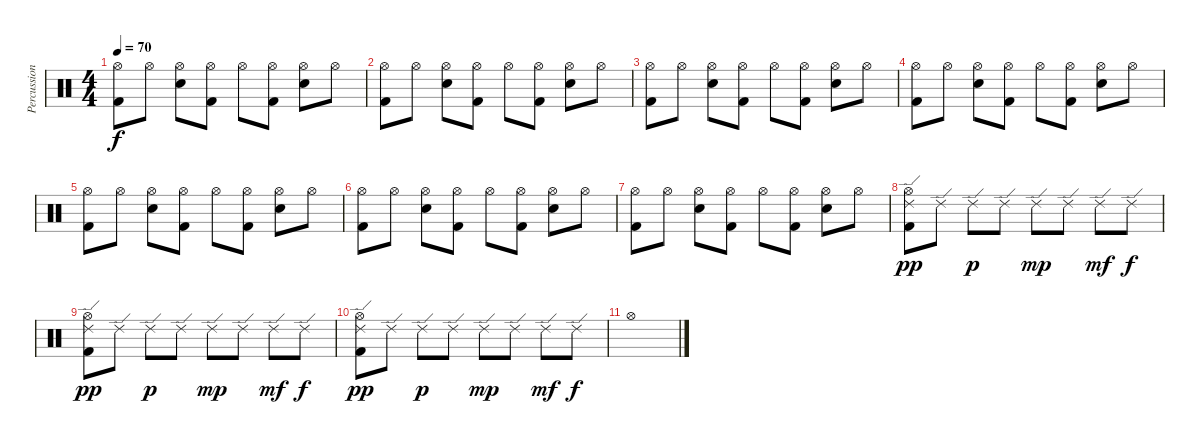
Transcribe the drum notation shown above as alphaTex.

\track ("Percussion" "Percussion") {instrument percussion}
\staff {score}
\articulation defaults
\ts (4 4)
\tempo 70
\clef neutral
\ks c
("Hi-Hat (open)" "Kick (hit) 2").8{dy f} "Hi-Hat (open)".8 ("Hi-Hat (open)" "Electric Snare (hit)").8 ("Hi-Hat (open)" "Kick (hit) 2").8 "Hi-Hat (open)".8 ("Hi-Hat (open)" "Kick (hit) 2").8 ("Hi-Hat (open)" "Electric Snare (hit)").8 "Hi-Hat (open)".8 |
("Hi-Hat (open)" "Kick (hit) 2").8 "Hi-Hat (open)".8 ("Hi-Hat (open)" "Electric Snare (hit)").8 ("Hi-Hat (open)" "Kick (hit) 2").8 "Hi-Hat (open)".8 ("Hi-Hat (open)" "Kick (hit) 2").8 ("Hi-Hat (open)" "Electric Snare (hit)").8 "Hi-Hat (open)".8 |
("Hi-Hat (open)" "Kick (hit) 2").8 "Hi-Hat (open)".8 ("Hi-Hat (open)" "Electric Snare (hit)").8 ("Hi-Hat (open)" "Kick (hit) 2").8 "Hi-Hat (open)".8 ("Hi-Hat (open)" "Kick (hit) 2").8 ("Hi-Hat (open)" "Electric Snare (hit)").8 "Hi-Hat (open)".8 |
("Hi-Hat (open)" "Kick (hit) 2").8 "Hi-Hat (open)".8 ("Hi-Hat (open)" "Electric Snare (hit)").8 ("Hi-Hat (open)" "Kick (hit) 2").8 "Hi-Hat (open)".8 ("Hi-Hat (open)" "Kick (hit) 2").8 ("Hi-Hat (open)" "Electric Snare (hit)").8 "Hi-Hat (open)".8 |
("Hi-Hat (open)" "Kick (hit) 2").8 "Hi-Hat (open)".8 ("Hi-Hat (open)" "Electric Snare (hit)").8 ("Hi-Hat (open)" "Kick (hit) 2").8 "Hi-Hat (open)".8 ("Hi-Hat (open)" "Kick (hit) 2").8 ("Hi-Hat (open)" "Electric Snare (hit)").8 "Hi-Hat (open)".8 |
("Hi-Hat (open)" "Kick (hit) 2").8 "Hi-Hat (open)".8 ("Hi-Hat (open)" "Electric Snare (hit)").8 ("Hi-Hat (open)" "Kick (hit) 2").8 "Hi-Hat (open)".8 ("Hi-Hat (open)" "Kick (hit) 2").8 ("Hi-Hat (open)" "Electric Snare (hit)").8 "Hi-Hat (open)".8 |
("Hi-Hat (open)" "Kick (hit) 2").8 "Hi-Hat (open)".8 ("Hi-Hat (open)" "Electric Snare (hit)").8 ("Hi-Hat (open)" "Kick (hit) 2").8 "Hi-Hat (open)".8 ("Hi-Hat (open)" "Kick (hit) 2").8 ("Hi-Hat (open)" "Electric Snare (hit)").8 "Hi-Hat (open)".8 |
("Ride (edge) 2" "Hi-Hat (open)" "Kick (hit) 2").8{dy pp} "Ride (edge) 2".8 "Ride (edge) 2".8{dy p} "Ride (edge) 2".8 "Ride (edge) 2".8{dy mp} "Ride (edge) 2".8 "Ride (edge) 2".8{dy mf} "Ride (edge) 2".8{dy f} |
("Ride (edge) 2" "Hi-Hat (open)" "Kick (hit) 2").8{dy pp} "Ride (edge) 2".8 "Ride (edge) 2".8{dy p} "Ride (edge) 2".8 "Ride (edge) 2".8{dy mp} "Ride (edge) 2".8 "Ride (edge) 2".8{dy mf} "Ride (edge) 2".8{dy f} |
("Ride (edge) 2" "Hi-Hat (open)" "Kick (hit) 2").8{dy pp} "Ride (edge) 2".8 "Ride (edge) 2".8{dy p} "Ride (edge) 2".8 "Ride (edge) 2".8{dy mp} "Ride (edge) 2".8 "Ride (edge) 2".8{dy mf} "Ride (edge) 2".8{dy f} |
"Hi-Hat (open)".1
